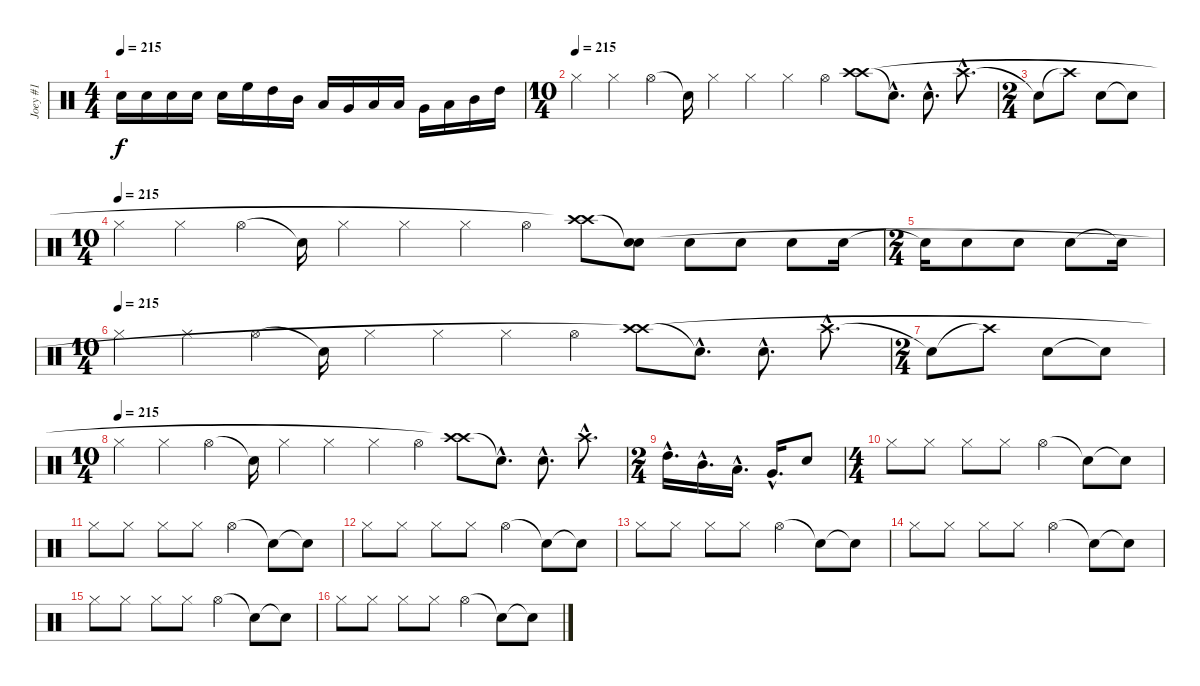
\track ("Joey #1" "Joey #1") {instrument percussion}
\staff {score}
\articulation defaults
\ts (4 4)
\tempo 215
\clef neutral
\ks c "Electric Snare (hit)".16{dy f volume 16} "Electric Snare (hit)".16 "Electric Snare (hit)".16 "Electric Snare (hit)".16 "Electric Snare (hit)".16 "High Floor Tom (hit)".16 "High Tom (hit)".16 "Mid Tom (hit)".16 "Low Tom (hit)".16 "Very Low Tom (hit)".16 "Low Floor Tom (hit)".16 "Low Floor Tom (hit)".16 "Very Low Tom (hit)".16 "Low Tom (hit)".16 "Mid Tom (hit)".16 "High Tom (hit)".16
|
\ts (10 4)
\tempo (215)
"Hi-Hat (closed)".4{volume 12} "Hi-Hat (closed)".4 "Hi-Hat (open)".4 "Snare (hit)"{t}.16 "Hi-Hat (closed)".4 "Hi-Hat (closed)".4 "Hi-Hat (closed)".4 "Hi-Hat (open)".4 ("Crash high (hit)" "Crash high (hit)"{t}).8 "Snare (hit)"{hac t}.8{d} "Snare (hit) 2"{hac}.8{d} "Crash high (hit)"{hac}.8{d} |
\ts (2 4)
"Snare (hit)"{t}.8 "Crash high (hit)"{t}.8 "Snare (hit) 2".8 "Snare (hit)"{t}.8 |
\ts (10 4)
\tempo (215)
"Hi-Hat (closed)".4{volume 12} "Hi-Hat (closed)".4 "Hi-Hat (open)".4 "Snare (hit)"{t}.16 "Hi-Hat (closed)".4 "Hi-Hat (closed)".4 "Hi-Hat (closed)".4 "Hi-Hat (open)".4 ("Crash high (hit)" "Crash high (hit)"{t}).8 ("Snare (hit)"{t} "Snare (hit) 2").8 "Snare (hit) 2".8 "Snare (hit) 2".8 "Snare (hit) 2".8 "Snare (hit) 2".16 |
\ts (2 4)
"Snare (hit) 2"{t}.16 "Snare (hit) 2".8 "Snare (hit) 2".8 "Snare (hit) 2".8 "Snare (hit)"{t}.16 |
\ts (10 4)
\tempo (215)
"Hi-Hat (closed)".4{volume 12} "Hi-Hat (closed)".4 "Hi-Hat (open)".4 "Snare (hit)"{t}.16 "Hi-Hat (closed)".4 "Hi-Hat (closed)".4 "Hi-Hat (closed)".4 "Hi-Hat (open)".4 ("Crash high (hit)" "Crash high (hit)"{t}).8 "Snare (hit)"{hac t}.8{d} "Snare (hit) 2"{hac}.8{d} "Crash high (hit)"{hac}.8{d} |
\ts (2 4)
"Snare (hit)"{t}.8 "Crash high (hit)"{t}.8 "Snare (hit) 2".8 "Snare (hit)"{t}.8 |
\ts (10 4)
\tempo (215)
"Hi-Hat (closed)".4{volume 12} "Hi-Hat (closed)".4 "Hi-Hat (open)".4 "Snare (hit)"{t}.16 "Hi-Hat (closed)".4 "Hi-Hat (closed)".4 "Hi-Hat (closed)".4 "Hi-Hat (open)".4 ("Crash high (hit)" "Crash high (hit)"{t}).8 "Snare (hit)"{hac t}.8{d} "Snare (hit) 2"{hac}.8{d} "Crash high (hit)"{hac}.8{d} |
\ts (2 4)
"High Tom (hit)"{hac}.16{d volume 16} "Mid Tom (hit)"{hac}.16{d} "Low Tom (hit)"{hac}.16{d} "Very Low Tom (hit)"{hac}.16{d} "Snare (hit) 2".8 |
\ts (4 4)
"Hi-Hat (closed)".8{volume 16} "Hi-Hat (closed)".8 "Hi-Hat (closed)".8 "Hi-Hat (closed)".8 "Hi-Hat (open)".4 "Snare (hit)"{t}.8 "Snare (hit)"{t}.8 |
"Hi-Hat (closed)".8 "Hi-Hat (closed)".8 "Hi-Hat (closed)".8 "Hi-Hat (closed)".8 "Hi-Hat (open)".4 "Snare (hit)"{t}.8 "Snare (hit)"{t}.8 |
"Hi-Hat (closed)".8 "Hi-Hat (closed)".8 "Hi-Hat (closed)".8 "Hi-Hat (closed)".8 "Hi-Hat (open)".4 "Snare (hit)"{t}.8 "Snare (hit)"{t}.8 |
"Hi-Hat (closed)".8 "Hi-Hat (closed)".8 "Hi-Hat (closed)".8 "Hi-Hat (closed)".8 "Hi-Hat (open)".4 "Snare (hit)"{t}.8 "Snare (hit)"{t}.8 |
"Hi-Hat (closed)".8 "Hi-Hat (closed)".8 "Hi-Hat (closed)".8 "Hi-Hat (closed)".8 "Hi-Hat (open)".4 "Snare (hit)"{t}.8 "Snare (hit)"{t}.8 |
"Hi-Hat (closed)".8 "Hi-Hat (closed)".8 "Hi-Hat (closed)".8 "Hi-Hat (closed)".8 "Hi-Hat (open)".4 "Snare (hit)"{t}.8 "Snare (hit)"{t}.8 |
"Hi-Hat (closed)".8 "Hi-Hat (closed)".8 "Hi-Hat (closed)".8 "Hi-Hat (closed)".8 "Hi-Hat (open)".4 "Snare (hit)"{t}.8 "Snare (hit)"{t}.8
